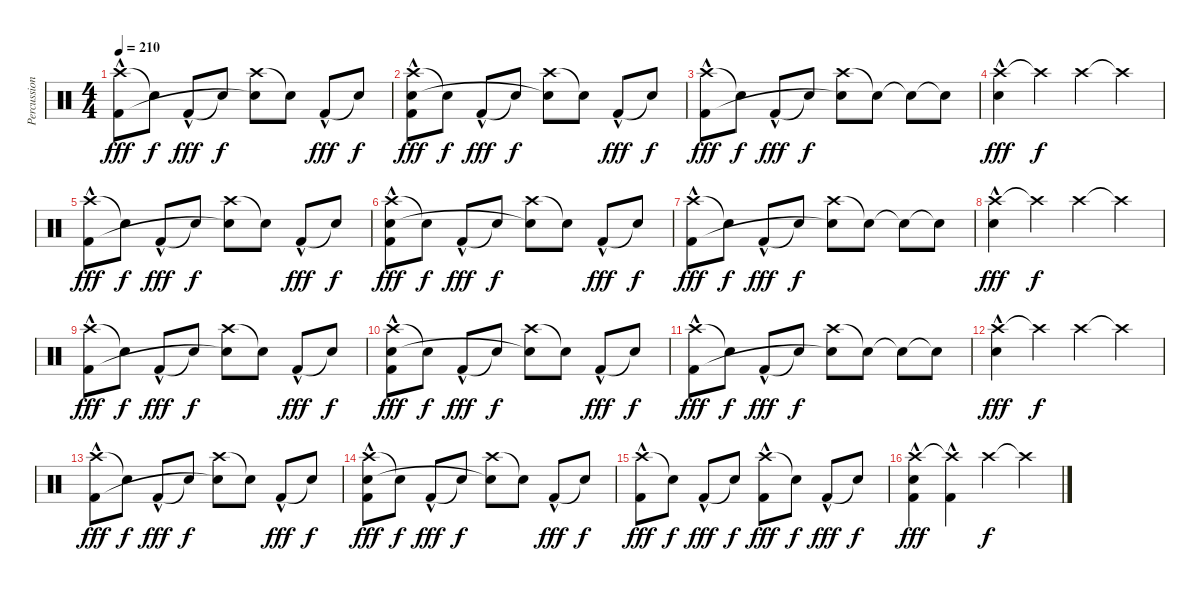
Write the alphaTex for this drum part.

\track ("Percussion" "Percussion") {instrument percussion}
\staff {score}
\articulation defaults
\ts (4 4)
\tempo 210
\clef neutral
\ks c
("Crash high (hit)" "Kick (hit) 2"{hac}).8{dy fff} "Snare (hit)"{t}.8{dy f} "Kick (hit) 2"{hac}.8{dy fff} "Snare (hit)"{t}.8{dy f} ("Crash high (hit)" "Snare (hit)"{t}).8 "Snare (hit)"{t}.8 "Kick (hit) 2"{hac}.8{dy fff} "Snare (hit)"{t}.8{dy f} |
("Crash high (hit)" "Electric Snare (hit)"{hac} "Kick (hit) 2"{hac}).8{dy fff} "Snare (hit)"{t}.8{dy f} "Kick (hit) 2"{hac}.8{dy fff} "Snare (hit)"{t}.8{dy f} ("Crash high (hit)" "Snare (hit)"{t}).8 "Snare (hit)"{t}.8 "Kick (hit) 2"{hac}.8{dy fff} "Snare (hit)"{t}.8{dy f} |
("Crash high (hit)" "Kick (hit) 2"{hac}).8{dy fff} "Snare (hit)"{t}.8{dy f} "Kick (hit) 2"{hac}.8{dy fff} "Snare (hit)"{t}.8{dy f} ("Crash high (hit)" "Snare (hit)"{t}).8 "Snare (hit)"{t}.8 "Snare (hit)"{t}.8 "Snare (hit)"{t}.8 |
("Crash high (hit)" "Electric Snare (hit)"{hac}).4{dy fff} "Crash high (hit)"{t}.4{dy f} "Crash high (hit)".4 "Crash high (hit)"{t}.4 |
("Crash high (hit)" "Kick (hit) 2"{hac}).8{dy fff} "Snare (hit)"{t}.8{dy f} "Kick (hit) 2"{hac}.8{dy fff} "Snare (hit)"{t}.8{dy f} ("Crash high (hit)" "Snare (hit)"{t}).8 "Snare (hit)"{t}.8 "Kick (hit) 2"{hac}.8{dy fff} "Snare (hit)"{t}.8{dy f} |
("Crash high (hit)" "Electric Snare (hit)"{hac} "Kick (hit) 2"{hac}).8{dy fff} "Snare (hit)"{t}.8{dy f} "Kick (hit) 2"{hac}.8{dy fff} "Snare (hit)"{t}.8{dy f} ("Crash high (hit)" "Snare (hit)"{t}).8 "Snare (hit)"{t}.8 "Kick (hit) 2"{hac}.8{dy fff} "Snare (hit)"{t}.8{dy f} |
("Crash high (hit)" "Kick (hit) 2"{hac}).8{dy fff} "Snare (hit)"{t}.8{dy f} "Kick (hit) 2"{hac}.8{dy fff} "Snare (hit)"{t}.8{dy f} ("Crash high (hit)" "Snare (hit)"{t}).8 "Snare (hit)"{t}.8 "Snare (hit)"{t}.8 "Snare (hit)"{t}.8 |
("Crash high (hit)" "Electric Snare (hit)"{hac}).4{dy fff} "Crash high (hit)"{t}.4{dy f} "Crash high (hit)".4 "Crash high (hit)"{t}.4 |
("Crash high (hit)" "Kick (hit) 2"{hac}).8{dy fff} "Snare (hit)"{t}.8{dy f} "Kick (hit) 2"{hac}.8{dy fff} "Snare (hit)"{t}.8{dy f} ("Crash high (hit)" "Snare (hit)"{t}).8 "Snare (hit)"{t}.8 "Kick (hit) 2"{hac}.8{dy fff} "Snare (hit)"{t}.8{dy f} |
("Crash high (hit)" "Electric Snare (hit)"{hac} "Kick (hit) 2"{hac}).8{dy fff} "Snare (hit)"{t}.8{dy f} "Kick (hit) 2"{hac}.8{dy fff} "Snare (hit)"{t}.8{dy f} ("Crash high (hit)" "Snare (hit)"{t}).8 "Snare (hit)"{t}.8 "Kick (hit) 2"{hac}.8{dy fff} "Snare (hit)"{t}.8{dy f} |
("Crash high (hit)" "Kick (hit) 2"{hac}).8{dy fff} "Snare (hit)"{t}.8{dy f} "Kick (hit) 2"{hac}.8{dy fff} "Snare (hit)"{t}.8{dy f} ("Crash high (hit)" "Snare (hit)"{t}).8 "Snare (hit)"{t}.8 "Snare (hit)"{t}.8 "Snare (hit)"{t}.8 |
("Crash high (hit)" "Electric Snare (hit)"{hac}).4{dy fff} "Crash high (hit)"{t}.4{dy f} "Crash high (hit)".4 "Crash high (hit)"{t}.4 |
("Crash high (hit)" "Kick (hit) 2"{hac}).8{dy fff} "Snare (hit)"{t}.8{dy f} "Kick (hit) 2"{hac}.8{dy fff} "Snare (hit)"{t}.8{dy f} ("Crash high (hit)" "Snare (hit)"{t}).8 "Snare (hit)"{t}.8 "Kick (hit) 2"{hac}.8{dy fff} "Snare (hit)"{t}.8{dy f} |
("Crash high (hit)" "Electric Snare (hit)"{hac} "Kick (hit) 2"{hac}).8{dy fff} "Snare (hit)"{t}.8{dy f} "Kick (hit) 2"{hac}.8{dy fff} "Snare (hit)"{t}.8{dy f} ("Crash high (hit)" "Snare (hit)"{t}).8 "Snare (hit)"{t}.8 "Kick (hit) 2"{hac}.8{dy fff} "Snare (hit)"{t}.8{dy f} |
("Crash high (hit)" "Kick (hit) 2"{hac}).8{dy fff} "Snare (hit)"{t}.8{dy f} "Kick (hit) 2"{hac}.8{dy fff} "Snare (hit)"{t}.8{dy f} ("Crash high (hit)" "Kick (hit) 2"{hac}).8{dy fff} "Snare (hit)"{t}.8{dy f} "Kick (hit) 2"{hac}.8{dy fff} "Snare (hit)"{t}.8{dy f} |
("Crash high (hit)" "Electric Snare (hit)"{hac} "Kick (hit) 2"{hac}).4{dy fff} ("Crash high (hit)"{t} "Kick (hit) 2"{hac}).4 "Crash high (hit)".4{dy f} "Crash high (hit)"{t}.4
